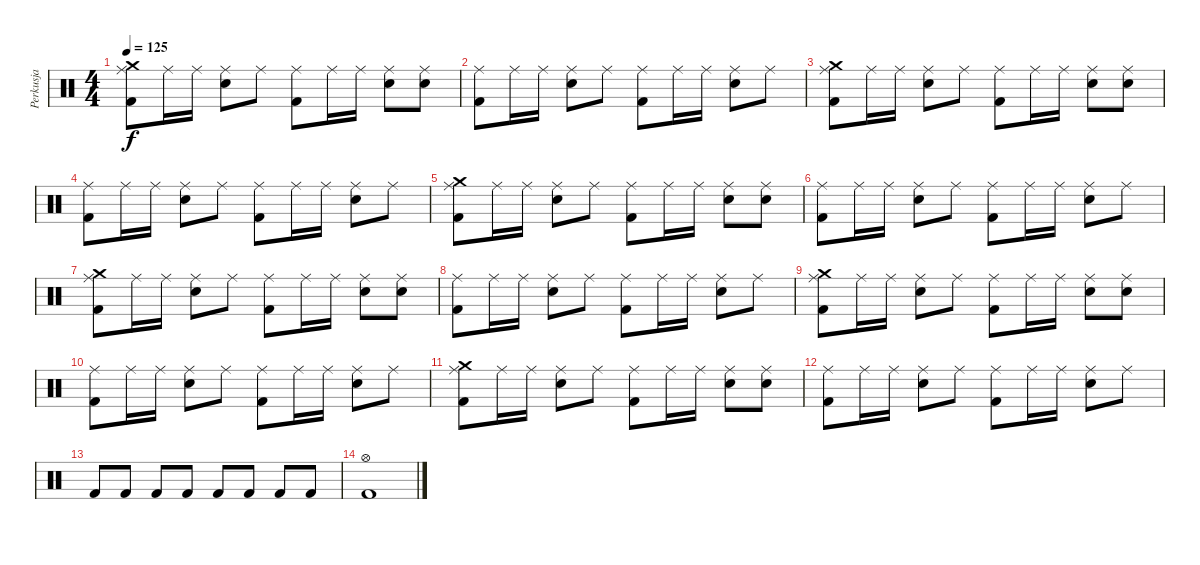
\track ("Perkusja" "Perkusja") {instrument percussion}
\staff {score}
\articulation defaults
\ts (4 4)
\tempo 125
\clef neutral
\ks c
("Crash medium (hit)" "Ride (middle)" "Kick (hit) 2").8{dy f} "Ride (middle)".16 "Ride (middle)".16 ("Ride (middle)" "Electric Snare (hit)").8 "Ride (middle)".8 ("Ride (middle)" "Kick (hit) 2").8 "Ride (middle)".16 "Ride (middle)".16 ("Ride (middle)" "Electric Snare (hit)").8 ("Ride (middle)" "Electric Snare (hit)").8 |
("Ride (middle)" "Kick (hit) 2").8 "Ride (middle)".16 "Ride (middle)".16 ("Ride (middle)" "Electric Snare (hit)").8 "Ride (middle)".8 ("Ride (middle)" "Kick (hit) 2").8 "Ride (middle)".16 "Ride (middle)".16 ("Ride (middle)" "Electric Snare (hit)").8 "Ride (middle)".8 |
("Crash medium (hit)" "Ride (middle)" "Kick (hit) 2").8 "Ride (middle)".16 "Ride (middle)".16 ("Ride (middle)" "Electric Snare (hit)").8 "Ride (middle)".8 ("Ride (middle)" "Kick (hit) 2").8 "Ride (middle)".16 "Ride (middle)".16 ("Ride (middle)" "Electric Snare (hit)").8 ("Ride (middle)" "Electric Snare (hit)").8 |
("Ride (middle)" "Kick (hit) 2").8 "Ride (middle)".16 "Ride (middle)".16 ("Ride (middle)" "Electric Snare (hit)").8 "Ride (middle)".8 ("Ride (middle)" "Kick (hit) 2").8 "Ride (middle)".16 "Ride (middle)".16 ("Ride (middle)" "Electric Snare (hit)").8 "Ride (middle)".8 |
("Crash medium (hit)" "Ride (middle)" "Kick (hit) 2").8 "Ride (middle)".16 "Ride (middle)".16 ("Ride (middle)" "Electric Snare (hit)").8 "Ride (middle)".8 ("Ride (middle)" "Kick (hit) 2").8 "Ride (middle)".16 "Ride (middle)".16 ("Ride (middle)" "Electric Snare (hit)").8 ("Ride (middle)" "Electric Snare (hit)").8 |
("Ride (middle)" "Kick (hit) 2").8 "Ride (middle)".16 "Ride (middle)".16 ("Ride (middle)" "Electric Snare (hit)").8 "Ride (middle)".8 ("Ride (middle)" "Kick (hit) 2").8 "Ride (middle)".16 "Ride (middle)".16 ("Ride (middle)" "Electric Snare (hit)").8 "Ride (middle)".8 |
("Crash medium (hit)" "Ride (middle)" "Kick (hit) 2").8 "Ride (middle)".16 "Ride (middle)".16 ("Ride (middle)" "Electric Snare (hit)").8 "Ride (middle)".8 ("Ride (middle)" "Kick (hit) 2").8 "Ride (middle)".16 "Ride (middle)".16 ("Ride (middle)" "Electric Snare (hit)").8 ("Ride (middle)" "Electric Snare (hit)").8 |
("Ride (middle)" "Kick (hit) 2").8 "Ride (middle)".16 "Ride (middle)".16 ("Ride (middle)" "Electric Snare (hit)").8 "Ride (middle)".8 ("Ride (middle)" "Kick (hit) 2").8 "Ride (middle)".16 "Ride (middle)".16 ("Ride (middle)" "Electric Snare (hit)").8 "Ride (middle)".8 |
("Crash medium (hit)" "Ride (middle)" "Kick (hit) 2").8 "Ride (middle)".16 "Ride (middle)".16 ("Ride (middle)" "Electric Snare (hit)").8 "Ride (middle)".8 ("Ride (middle)" "Kick (hit) 2").8 "Ride (middle)".16 "Ride (middle)".16 ("Ride (middle)" "Electric Snare (hit)").8 ("Ride (middle)" "Electric Snare (hit)").8 |
("Ride (middle)" "Kick (hit) 2").8 "Ride (middle)".16 "Ride (middle)".16 ("Ride (middle)" "Electric Snare (hit)").8 "Ride (middle)".8 ("Ride (middle)" "Kick (hit) 2").8 "Ride (middle)".16 "Ride (middle)".16 ("Ride (middle)" "Electric Snare (hit)").8 "Ride (middle)".8 |
("Crash medium (hit)" "Ride (middle)" "Kick (hit) 2").8 "Ride (middle)".16 "Ride (middle)".16 ("Ride (middle)" "Electric Snare (hit)").8 "Ride (middle)".8 ("Ride (middle)" "Kick (hit) 2").8 "Ride (middle)".16 "Ride (middle)".16 ("Ride (middle)" "Electric Snare (hit)").8 ("Ride (middle)" "Electric Snare (hit)").8 |
("Ride (middle)" "Kick (hit) 2").8 "Ride (middle)".16 "Ride (middle)".16 ("Ride (middle)" "Electric Snare (hit)").8 "Ride (middle)".8 ("Ride (middle)" "Kick (hit) 2").8 "Ride (middle)".16 "Ride (middle)".16 ("Ride (middle)" "Electric Snare (hit)").8 "Ride (middle)".8 |
"Kick (hit) 2".8 "Kick (hit) 2".8 "Kick (hit) 2".8 "Kick (hit) 2".8 "Kick (hit) 2".8 "Kick (hit) 2".8 "Kick (hit) 2".8 "Kick (hit) 2".8 |
("Hi-Hat (open)" "Kick (hit) 2").1
